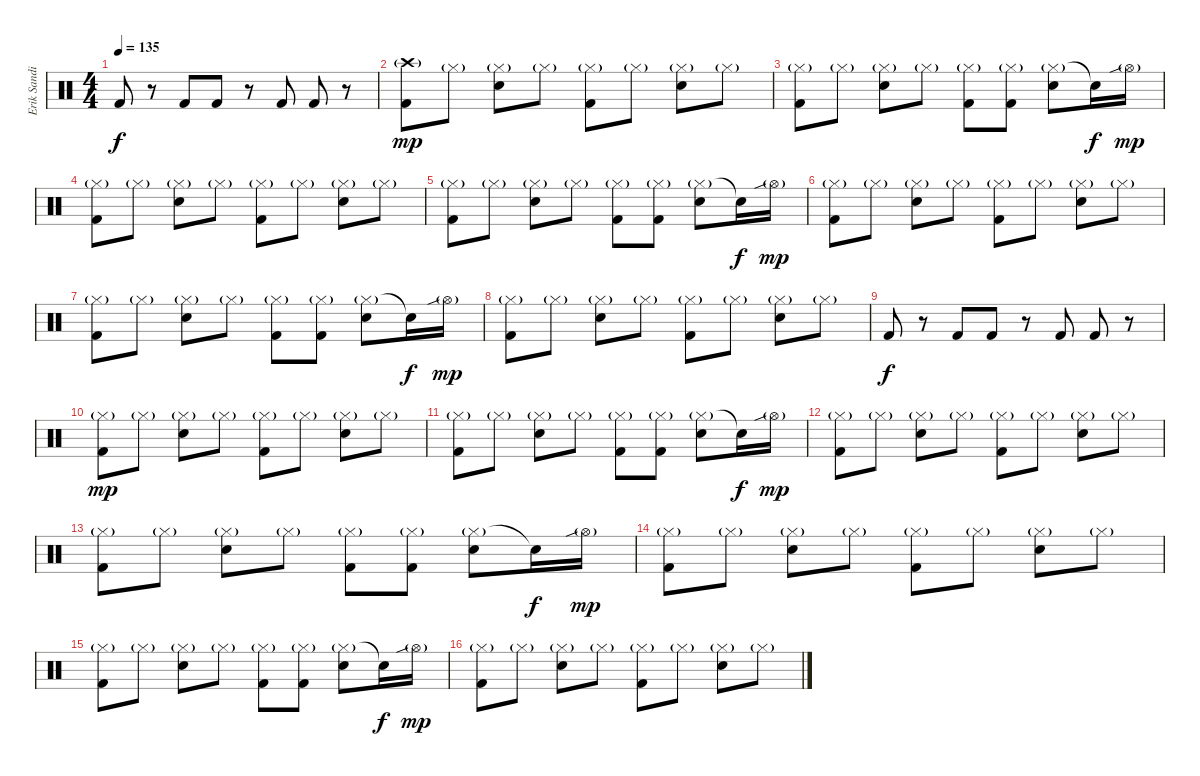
\track ("Erik Sandin" "Erik Sandi") {instrument percussion}
\staff {score}
\articulation defaults
\ts (4 4)
\tempo 135
\clef neutral
\ks c "Kick (hit) 2".8{dy f}
r.8 "Kick (hit) 2".8 "Kick (hit) 2".8 r.8 "Kick (hit) 2".8 "Kick (hit) 2".8 r.8 |
("Crash high (hit)"{g} "Kick (hit) 2").8{dy mp} "Hi-Hat (closed)"{g}.8 ("Hi-Hat (closed)"{g} "Snare (hit) 2").8 "Hi-Hat (closed)"{g}.8 ("Hi-Hat (closed)"{g} "Kick (hit) 2").8 "Hi-Hat (closed)"{g}.8 ("Hi-Hat (closed)"{g} "Snare (hit) 2").8 "Hi-Hat (closed)"{g}.8 |
("Hi-Hat (closed)"{g} "Kick (hit) 2").8 "Hi-Hat (closed)"{g}.8 ("Hi-Hat (closed)"{g} "Snare (hit) 2").8 "Hi-Hat (closed)"{g}.8 ("Hi-Hat (closed)"{g} "Kick (hit) 2").8 ("Hi-Hat (closed)"{g} "Kick (hit) 2").8 ("Hi-Hat (closed)"{g} "Snare (hit) 2").8 "Snare (hit)"{t}.16{dy f} "Hi-Hat (open)"{sib g}.16{dy mp} |
("Hi-Hat (closed)"{g} "Kick (hit) 2").8 "Hi-Hat (closed)"{g}.8 ("Hi-Hat (closed)"{g} "Snare (hit) 2").8 "Hi-Hat (closed)"{g}.8 ("Hi-Hat (closed)"{g} "Kick (hit) 2").8 "Hi-Hat (closed)"{g}.8 ("Hi-Hat (closed)"{g} "Snare (hit) 2").8 "Hi-Hat (closed)"{g}.8 |
("Hi-Hat (closed)"{g} "Kick (hit) 2").8 "Hi-Hat (closed)"{g}.8 ("Hi-Hat (closed)"{g} "Snare (hit) 2").8 "Hi-Hat (closed)"{g}.8 ("Hi-Hat (closed)"{g} "Kick (hit) 2").8 ("Hi-Hat (closed)"{g} "Kick (hit) 2").8 ("Hi-Hat (closed)"{g} "Snare (hit) 2").8 "Snare (hit)"{t}.16{dy f} "Hi-Hat (open)"{sib g}.16{dy mp} |
("Hi-Hat (closed)"{g} "Kick (hit) 2").8 "Hi-Hat (closed)"{g}.8 ("Hi-Hat (closed)"{g} "Snare (hit) 2").8 "Hi-Hat (closed)"{g}.8 ("Hi-Hat (closed)"{g} "Kick (hit) 2").8 "Hi-Hat (closed)"{g}.8 ("Hi-Hat (closed)"{g} "Snare (hit) 2").8 "Hi-Hat (closed)"{g}.8 |
("Hi-Hat (closed)"{g} "Kick (hit) 2").8 "Hi-Hat (closed)"{g}.8 ("Hi-Hat (closed)"{g} "Snare (hit) 2").8 "Hi-Hat (closed)"{g}.8 ("Hi-Hat (closed)"{g} "Kick (hit) 2").8 ("Hi-Hat (closed)"{g} "Kick (hit) 2").8 ("Hi-Hat (closed)"{g} "Snare (hit) 2").8 "Snare (hit)"{t}.16{dy f} "Hi-Hat (open)"{sib g}.16{dy mp} |
("Hi-Hat (closed)"{g} "Kick (hit) 2").8 "Hi-Hat (closed)"{g}.8 ("Hi-Hat (closed)"{g} "Snare (hit) 2").8 "Hi-Hat (closed)"{g}.8 ("Hi-Hat (closed)"{g} "Kick (hit) 2").8 "Hi-Hat (closed)"{g}.8 ("Hi-Hat (closed)"{g} "Snare (hit) 2").8 "Hi-Hat (closed)"{g}.8 |
"Kick (hit) 2".8{dy f} r.8 "Kick (hit) 2".8 "Kick (hit) 2".8 r.8 "Kick (hit) 2".8 "Kick (hit) 2".8 r.8 |
("Hi-Hat (closed)"{g} "Kick (hit) 2").8{dy mp} "Hi-Hat (closed)"{g}.8 ("Hi-Hat (closed)"{g} "Snare (hit) 2").8 "Hi-Hat (closed)"{g}.8 ("Hi-Hat (closed)"{g} "Kick (hit) 2").8 "Hi-Hat (closed)"{g}.8 ("Hi-Hat (closed)"{g} "Snare (hit) 2").8 "Hi-Hat (closed)"{g}.8 |
("Hi-Hat (closed)"{g} "Kick (hit) 2").8 "Hi-Hat (closed)"{g}.8 ("Hi-Hat (closed)"{g} "Snare (hit) 2").8 "Hi-Hat (closed)"{g}.8 ("Hi-Hat (closed)"{g} "Kick (hit) 2").8 ("Hi-Hat (closed)"{g} "Kick (hit) 2").8 ("Hi-Hat (closed)"{g} "Snare (hit) 2").8 "Snare (hit)"{t}.16{dy f} "Hi-Hat (open)"{sib g}.16{dy mp} |
("Hi-Hat (closed)"{g} "Kick (hit) 2").8 "Hi-Hat (closed)"{g}.8 ("Hi-Hat (closed)"{g} "Snare (hit) 2").8 "Hi-Hat (closed)"{g}.8 ("Hi-Hat (closed)"{g} "Kick (hit) 2").8 "Hi-Hat (closed)"{g}.8 ("Hi-Hat (closed)"{g} "Snare (hit) 2").8 "Hi-Hat (closed)"{g}.8 |
("Hi-Hat (closed)"{g} "Kick (hit) 2").8 "Hi-Hat (closed)"{g}.8 ("Hi-Hat (closed)"{g} "Snare (hit) 2").8 "Hi-Hat (closed)"{g}.8 ("Hi-Hat (closed)"{g} "Kick (hit) 2").8 ("Hi-Hat (closed)"{g} "Kick (hit) 2").8 ("Hi-Hat (closed)"{g} "Snare (hit) 2").8 "Snare (hit)"{t}.16{dy f} "Hi-Hat (open)"{sib g}.16{dy mp} |
("Hi-Hat (closed)"{g} "Kick (hit) 2").8 "Hi-Hat (closed)"{g}.8 ("Hi-Hat (closed)"{g} "Snare (hit) 2").8 "Hi-Hat (closed)"{g}.8 ("Hi-Hat (closed)"{g} "Kick (hit) 2").8 "Hi-Hat (closed)"{g}.8 ("Hi-Hat (closed)"{g} "Snare (hit) 2").8 "Hi-Hat (closed)"{g}.8 |
("Hi-Hat (closed)"{g} "Kick (hit) 2").8 "Hi-Hat (closed)"{g}.8 ("Hi-Hat (closed)"{g} "Snare (hit) 2").8 "Hi-Hat (closed)"{g}.8 ("Hi-Hat (closed)"{g} "Kick (hit) 2").8 ("Hi-Hat (closed)"{g} "Kick (hit) 2").8 ("Hi-Hat (closed)"{g} "Snare (hit) 2").8 "Snare (hit)"{t}.16{dy f} "Hi-Hat (open)"{sib g}.16{dy mp} |
("Hi-Hat (closed)"{g} "Kick (hit) 2").8 "Hi-Hat (closed)"{g}.8 ("Hi-Hat (closed)"{g} "Snare (hit) 2").8 "Hi-Hat (closed)"{g}.8 ("Hi-Hat (closed)"{g} "Kick (hit) 2").8 "Hi-Hat (closed)"{g}.8 ("Hi-Hat (closed)"{g} "Snare (hit) 2").8 "Hi-Hat (closed)"{g}.8
